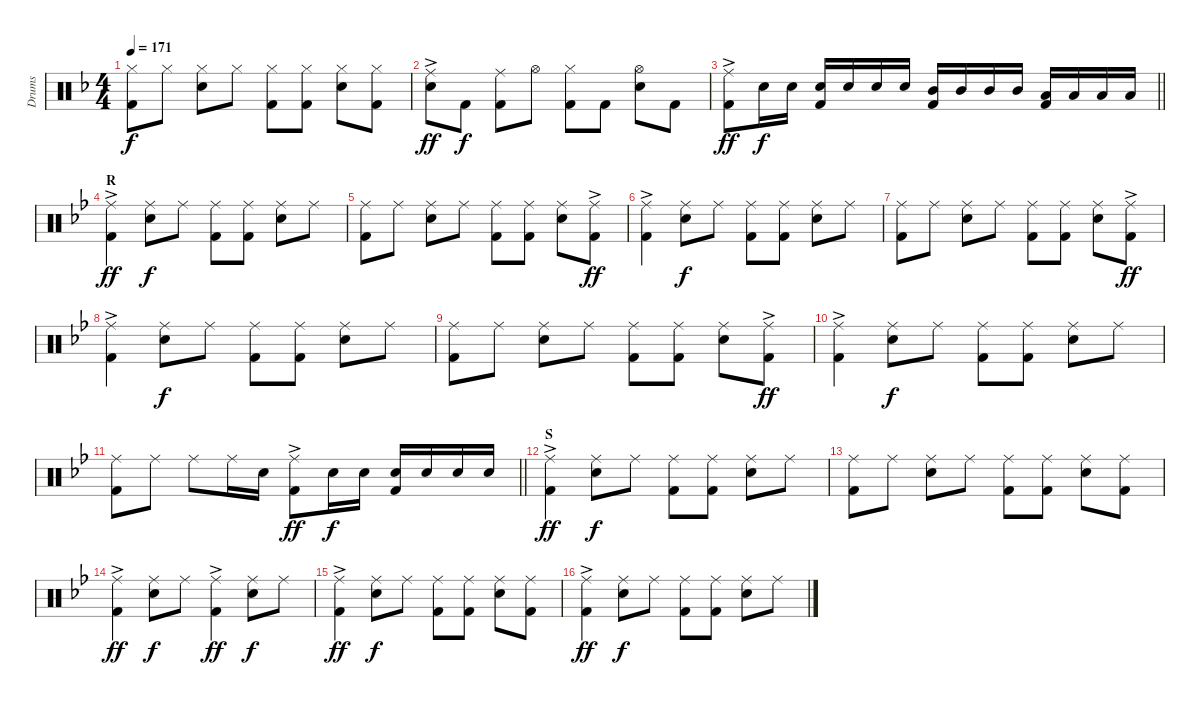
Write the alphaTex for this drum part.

\track ("Drums" "Drums") {instrument percussion}
\staff {score}
\articulation defaults
\ts (4 4)
\tempo 171
\clef neutral
\ks f
("Hi-Hat (closed)" "Kick (hit) 2").8{dy f} "Hi-Hat (closed)".8 ("Hi-Hat (closed)" "Snare (hit) 2").8 "Hi-Hat (closed)".8 ("Hi-Hat (closed)" "Kick (hit) 2").8 ("Hi-Hat (closed)" "Kick (hit) 2").8 ("Hi-Hat (closed)" "Snare (hit) 2").8 ("Hi-Hat (closed)" "Kick (hit) 2").8 |
("Ride (middle)"{ac} "Snare (hit) 2").8{dy ff} "Kick (hit) 2".8{dy f} ("Ride (middle)" "Kick (hit) 2").8 "Hi-Hat (open)".8 ("Hi-Hat (closed)" "Kick (hit) 2").8 "Kick (hit) 2".8 ("Hi-Hat (open)" "Snare (hit) 2").8 "Kick (hit) 2".8 |
\barLineRight lightlight
("Ride (middle)"{ac} "Kick (hit) 2").8{dy ff} "Snare (hit) 2".16{dy f} "Snare (hit) 2".16 ("Snare (hit) 2" "Kick (hit) 2").16 "Snare (hit) 2".16 "Snare (hit) 2".16 "Snare (hit) 2".16 ("Mid Tom (hit)" "Kick (hit) 2").16 "Mid Tom (hit)".16 "Mid Tom (hit)".16 "Mid Tom (hit)".16 ("Low Tom (hit)" "Kick (hit) 2").16 "Low Tom (hit)".16 "Low Tom (hit)".16 "Low Tom (hit)".16 |
\section ("" "R")
\ks bb
("Ride (middle)"{ac} "Kick (hit) 2").4{dy ff} ("Ride (middle)" "Snare (hit) 2").8{dy f} "Ride (middle)".8 ("Ride (middle)" "Kick (hit) 2").8 ("Ride (middle)" "Kick (hit) 2").8 ("Ride (middle)" "Snare (hit) 2").8 "Ride (middle)".8 |
("Ride (middle)" "Kick (hit) 2").8 "Ride (middle)".8 ("Ride (middle)" "Snare (hit) 2").8 "Ride (middle)".8 ("Ride (middle)" "Kick (hit) 2").8 ("Ride (middle)" "Kick (hit) 2").8 ("Ride (middle)" "Snare (hit) 2").8 ("Ride (middle)"{ac} "Kick (hit) 2").8{dy ff} |
("Ride (middle)"{ac} "Kick (hit) 2").4 ("Ride (middle)" "Snare (hit) 2").8{dy f} "Ride (middle)".8 ("Ride (middle)" "Kick (hit) 2").8 ("Ride (middle)" "Kick (hit) 2").8 ("Ride (middle)" "Snare (hit) 2").8 "Ride (middle)".8 |
("Ride (middle)" "Kick (hit) 2").8 "Ride (middle)".8 ("Ride (middle)" "Snare (hit) 2").8 "Ride (middle)".8 ("Ride (middle)" "Kick (hit) 2").8 ("Ride (middle)" "Kick (hit) 2").8 ("Ride (middle)" "Snare (hit) 2").8 ("Ride (middle)"{ac} "Kick (hit) 2").8{dy ff} |
("Ride (middle)"{ac} "Kick (hit) 2").4 ("Ride (middle)" "Snare (hit) 2").8{dy f} "Ride (middle)".8 ("Ride (middle)" "Kick (hit) 2").8 ("Ride (middle)" "Kick (hit) 2").8 ("Ride (middle)" "Snare (hit) 2").8 "Ride (middle)".8 |
("Ride (middle)" "Kick (hit) 2").8 "Ride (middle)".8 ("Ride (middle)" "Snare (hit) 2").8 "Ride (middle)".8 ("Ride (middle)" "Kick (hit) 2").8 ("Ride (middle)" "Kick (hit) 2").8 ("Ride (middle)" "Snare (hit) 2").8 ("Ride (middle)"{ac} "Kick (hit) 2").8{dy ff} |
("Ride (middle)"{ac} "Kick (hit) 2").4 ("Ride (middle)" "Snare (hit) 2").8{dy f} "Ride (middle)".8 ("Ride (middle)" "Kick (hit) 2").8 ("Ride (middle)" "Kick (hit) 2").8 ("Ride (middle)" "Snare (hit) 2").8 "Ride (middle)".8 |
\barLineRight lightlight
("Ride (middle)" "Kick (hit) 2").8 "Ride (middle)".8 "Ride (middle)".8 "Ride (middle)".16 "Snare (hit) 2".16 ("Ride (middle)"{ac} "Kick (hit) 2").8{dy ff} "Snare (hit) 2".16{dy f} "Snare (hit) 2".16 ("Snare (hit) 2" "Kick (hit) 2").16 "Snare (hit) 2".16 "Snare (hit) 2".16 "Snare (hit) 2".16 |
\section ("" "S")
("Ride (middle)"{ac} "Kick (hit) 2").4{dy ff} ("Ride (middle)" "Snare (hit) 2").8{dy f} "Ride (middle)".8 ("Ride (middle)" "Kick (hit) 2").8 ("Ride (middle)" "Kick (hit) 2").8 ("Ride (middle)" "Snare (hit) 2").8 "Ride (middle)".8 |
("Ride (middle)" "Kick (hit) 2").8 "Ride (middle)".8 ("Ride (middle)" "Snare (hit) 2").8 "Ride (middle)".8 ("Ride (middle)" "Kick (hit) 2").8 ("Ride (middle)" "Kick (hit) 2").8 ("Ride (middle)" "Snare (hit) 2").8 ("Ride (middle)" "Kick (hit) 2").8 |
("Ride (middle)"{ac} "Kick (hit) 2").4{dy ff} ("Ride (middle)" "Snare (hit) 2").8{dy f} "Ride (middle)".8 ("Ride (middle)"{ac} "Kick (hit) 2").4{dy ff} ("Ride (middle)" "Snare (hit) 2").8{dy f} "Ride (middle)".8 |
("Ride (middle)"{ac} "Kick (hit) 2").4{dy ff} ("Ride (middle)" "Snare (hit) 2").8{dy f} "Ride (middle)".8 ("Ride (middle)" "Kick (hit) 2").8 ("Ride (middle)" "Kick (hit) 2").8 ("Ride (middle)" "Snare (hit) 2").8 ("Ride (middle)" "Kick (hit) 2").8 |
("Ride (middle)"{ac} "Kick (hit) 2").4{dy ff} ("Ride (middle)" "Snare (hit) 2").8{dy f} "Ride (middle)".8 ("Ride (middle)" "Kick (hit) 2").8 ("Ride (middle)" "Kick (hit) 2").8 ("Ride (middle)" "Snare (hit) 2").8 "Ride (middle)".8
